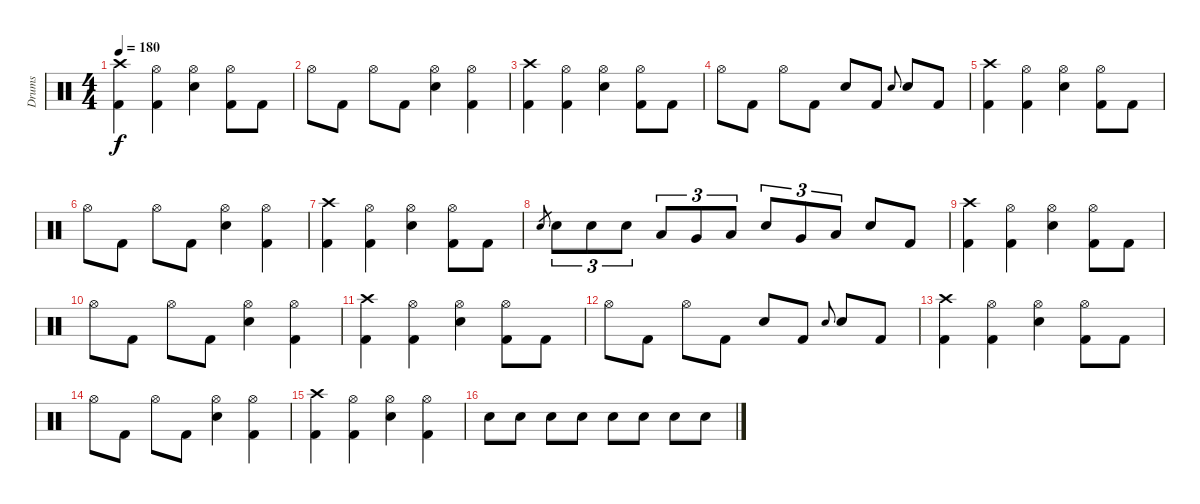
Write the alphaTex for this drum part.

\track ("Drums" "Drums") {instrument percussion}
\staff {score}
\articulation defaults
\ts (4 4)
\tempo 180
\clef neutral
\ks c
("Crash high (hit)" "Kick (hit) 2").4{dy f} ("Hi-Hat (open)" "Kick (hit) 2").4 ("Hi-Hat (open)" "Electric Snare (hit)").4 ("Hi-Hat (open)" "Kick (hit) 2").8 "Kick (hit) 2".8 |
"Hi-Hat (open)".8 "Kick (hit) 2".8 "Hi-Hat (open)".8 "Kick (hit) 2".8 ("Hi-Hat (open)" "Electric Snare (hit)").4 ("Hi-Hat (open)" "Kick (hit) 2").4 |
("Crash high (hit)" "Kick (hit) 2").4 ("Hi-Hat (open)" "Kick (hit) 2").4 ("Hi-Hat (open)" "Electric Snare (hit)").4 ("Hi-Hat (open)" "Kick (hit) 2").8 "Kick (hit) 2".8 |
"Hi-Hat (open)".8 "Kick (hit) 2".8 "Hi-Hat (open)".8 "Kick (hit) 2".8 "Electric Snare (hit)".8 "Kick (hit) 2".8 "Electric Snare (hit)".8{gr onbeat} "Electric Snare (hit)".8 "Kick (hit) 2".8 |
("Crash high (hit)" "Kick (hit) 2").4 ("Hi-Hat (open)" "Kick (hit) 2").4 ("Hi-Hat (open)" "Electric Snare (hit)").4 ("Hi-Hat (open)" "Kick (hit) 2").8 "Kick (hit) 2".8 |
"Hi-Hat (open)".8 "Kick (hit) 2".8 "Hi-Hat (open)".8 "Kick (hit) 2".8 ("Hi-Hat (open)" "Electric Snare (hit)").4 ("Hi-Hat (open)" "Kick (hit) 2").4 |
("Crash high (hit)" "Kick (hit) 2").4 ("Hi-Hat (open)" "Kick (hit) 2").4 ("Hi-Hat (open)" "Electric Snare (hit)").4 ("Hi-Hat (open)" "Kick (hit) 2").8 "Kick (hit) 2".8 |
"Electric Snare (hit)".8{gr} "Electric Snare (hit)".8{tu (3 2)} "Electric Snare (hit)".8{tu (3 2)} "Electric Snare (hit)".8{tu (3 2)} "Low Tom (hit)".8{tu (3 2)} "Very Low Tom (hit)".8{tu (3 2)} "Low Floor Tom (hit)".8{tu (3 2)} "Electric Snare (hit)".8{tu (3 2)} "Very Low Tom (hit)".8{tu (3 2)} "Low Floor Tom (hit)".8{tu (3 2)} "Electric Snare (hit)".8 "Kick (hit) 2".8 |
("Crash high (hit)" "Kick (hit) 2").4 ("Hi-Hat (open)" "Kick (hit) 2").4 ("Hi-Hat (open)" "Electric Snare (hit)").4 ("Hi-Hat (open)" "Kick (hit) 2").8 "Kick (hit) 2".8 |
"Hi-Hat (open)".8 "Kick (hit) 2".8 "Hi-Hat (open)".8 "Kick (hit) 2".8 ("Hi-Hat (open)" "Electric Snare (hit)").4 ("Hi-Hat (open)" "Kick (hit) 2").4 |
("Crash high (hit)" "Kick (hit) 2").4 ("Hi-Hat (open)" "Kick (hit) 2").4 ("Hi-Hat (open)" "Electric Snare (hit)").4 ("Hi-Hat (open)" "Kick (hit) 2").8 "Kick (hit) 2".8 |
"Hi-Hat (open)".8 "Kick (hit) 2".8 "Hi-Hat (open)".8 "Kick (hit) 2".8 "Electric Snare (hit)".8 "Kick (hit) 2".8 "Electric Snare (hit)".8{gr onbeat} "Electric Snare (hit)".8 "Kick (hit) 2".8 |
("Crash high (hit)" "Kick (hit) 2").4 ("Hi-Hat (open)" "Kick (hit) 2").4 ("Hi-Hat (open)" "Electric Snare (hit)").4 ("Hi-Hat (open)" "Kick (hit) 2").8 "Kick (hit) 2".8 |
"Hi-Hat (open)".8 "Kick (hit) 2".8 "Hi-Hat (open)".8 "Kick (hit) 2".8 ("Hi-Hat (open)" "Electric Snare (hit)").4 ("Hi-Hat (open)" "Kick (hit) 2").4 |
("Crash high (hit)" "Kick (hit) 2").4 ("Hi-Hat (open)" "Kick (hit) 2").4 ("Hi-Hat (open)" "Electric Snare (hit)").4 ("Hi-Hat (open)" "Kick (hit) 2").4 |
"Electric Snare (hit)".8 "Electric Snare (hit)".8 "Electric Snare (hit)".8 "Electric Snare (hit)".8 "Electric Snare (hit)".8 "Electric Snare (hit)".8 "Electric Snare (hit)".8 "Electric Snare (hit)".8
